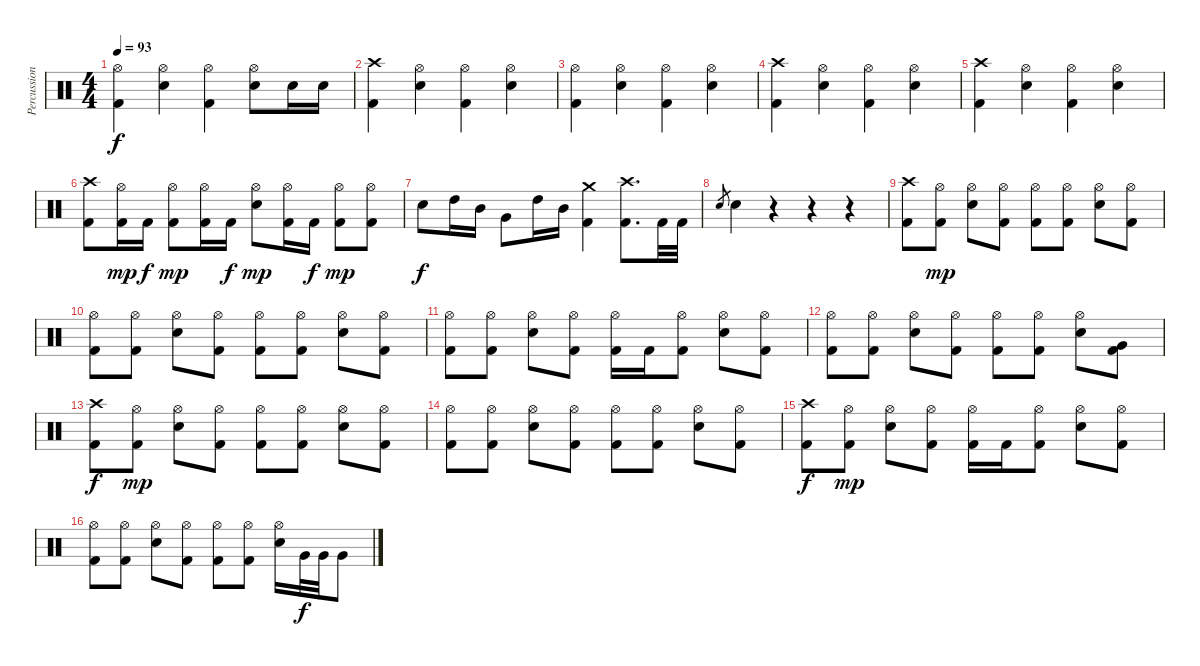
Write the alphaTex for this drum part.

\track ("Percussions" "Percussion") {instrument percussion}
\staff {score}
\articulation defaults
\ts (4 4)
\tempo 93
\clef neutral
\ks c
("Hi-Hat (open)" "Kick (hit) 2").4{dy f} ("Hi-Hat (open)" "Electric Snare (hit)").4 ("Hi-Hat (open)" "Kick (hit) 2").4 ("Hi-Hat (open)" "Electric Snare (hit)").8 "Electric Snare (hit)".16 "Electric Snare (hit)".16 |
("Crash high (hit)" "Kick (hit) 2").4 ("Hi-Hat (open)" "Electric Snare (hit)").4 ("Hi-Hat (open)" "Kick (hit) 2").4 ("Hi-Hat (open)" "Electric Snare (hit)").4 |
("Hi-Hat (open)" "Kick (hit) 2").4 ("Hi-Hat (open)" "Electric Snare (hit)").4 ("Hi-Hat (open)" "Kick (hit) 2").4 ("Hi-Hat (open)" "Electric Snare (hit)").4 |
("Crash high (hit)" "Kick (hit) 2").4 ("Hi-Hat (open)" "Electric Snare (hit)").4 ("Hi-Hat (open)" "Kick (hit) 2").4 ("Hi-Hat (open)" "Electric Snare (hit)").4 |
("Crash high (hit)" "Kick (hit) 2").4 ("Hi-Hat (open)" "Electric Snare (hit)").4 ("Hi-Hat (open)" "Kick (hit) 2").4 ("Hi-Hat (open)" "Electric Snare (hit)").4 |
("Crash high (hit)" "Kick (hit) 2").8 ("Hi-Hat (open)" "Kick (hit) 2").16{dy mp} "Kick (hit) 2".16{dy f} ("Hi-Hat (open)" "Kick (hit) 2").8{dy mp} ("Hi-Hat (open)" "Kick (hit) 2").16 "Kick (hit) 2".16{dy f} ("Hi-Hat (open)" "Electric Snare (hit)").8{dy mp} ("Hi-Hat (open)" "Kick (hit) 2").16 "Kick (hit) 2".16{dy f} ("Hi-Hat (open)" "Kick (hit) 2").8{dy mp} ("Hi-Hat (open)" "Kick (hit) 2").8 |
"Electric Snare (hit)".8{dy f} "High Tom (hit)".16 "Mid Tom (hit)".16 "Very Low Tom (hit)".8 "High Tom (hit)".16 "Mid Tom (hit)".16 ("Crash medium (hit)" "Kick (hit) 2").4 ("Crash high (hit)" "Kick (hit) 2").8{d} "Kick (hit) 2".32 "Kick (hit) 2".32 |
"Electric Snare (hit)".8{gr} "Electric Snare (hit)".4 r.4 r.4 r.4 |
("Crash high (hit)" "Kick (hit) 2").8 ("Hi-Hat (open)" "Kick (hit) 2").8{dy mp} ("Hi-Hat (open)" "Electric Snare (hit)").8 ("Hi-Hat (open)" "Kick (hit) 2").8 ("Hi-Hat (open)" "Kick (hit) 2").8 ("Hi-Hat (open)" "Kick (hit) 2").8 ("Hi-Hat (open)" "Electric Snare (hit)").8 ("Hi-Hat (open)" "Kick (hit) 2").8 |
("Hi-Hat (open)" "Kick (hit) 2").8 ("Hi-Hat (open)" "Kick (hit) 2").8 ("Hi-Hat (open)" "Electric Snare (hit)").8 ("Hi-Hat (open)" "Kick (hit) 2").8 ("Hi-Hat (open)" "Kick (hit) 2").8 ("Hi-Hat (open)" "Kick (hit) 2").8 ("Hi-Hat (open)" "Electric Snare (hit)").8 ("Hi-Hat (open)" "Kick (hit) 2").8 |
("Hi-Hat (open)" "Kick (hit) 2").8 ("Hi-Hat (open)" "Kick (hit) 2").8 ("Hi-Hat (open)" "Electric Snare (hit)").8 ("Hi-Hat (open)" "Kick (hit) 2").8 ("Hi-Hat (open)" "Kick (hit) 2").16 "Kick (hit) 2".16 ("Hi-Hat (open)" "Kick (hit) 2").8 ("Hi-Hat (open)" "Electric Snare (hit)").8 ("Hi-Hat (open)" "Kick (hit) 2").8 |
("Hi-Hat (open)" "Kick (hit) 2").8 ("Hi-Hat (open)" "Kick (hit) 2").8 ("Hi-Hat (open)" "Electric Snare (hit)").8 ("Hi-Hat (open)" "Kick (hit) 2").8 ("Hi-Hat (open)" "Kick (hit) 2").8 ("Hi-Hat (open)" "Kick (hit) 2").8 ("Hi-Hat (open)" "Electric Snare (hit)").8 ("Very Low Tom (hit)" "Kick (hit) 2").8 |
("Crash high (hit)" "Kick (hit) 2").8{dy f} ("Hi-Hat (open)" "Kick (hit) 2").8{dy mp} ("Hi-Hat (open)" "Electric Snare (hit)").8 ("Hi-Hat (open)" "Kick (hit) 2").8 ("Hi-Hat (open)" "Kick (hit) 2").8 ("Hi-Hat (open)" "Kick (hit) 2").8 ("Hi-Hat (open)" "Electric Snare (hit)").8 ("Hi-Hat (open)" "Kick (hit) 2").8 |
("Hi-Hat (open)" "Kick (hit) 2").8 ("Hi-Hat (open)" "Kick (hit) 2").8 ("Hi-Hat (open)" "Electric Snare (hit)").8 ("Hi-Hat (open)" "Kick (hit) 2").8 ("Hi-Hat (open)" "Kick (hit) 2").8 ("Hi-Hat (open)" "Kick (hit) 2").8 ("Hi-Hat (open)" "Electric Snare (hit)").8 ("Hi-Hat (open)" "Kick (hit) 2").8 |
("Crash high (hit)" "Kick (hit) 2").8{dy f} ("Hi-Hat (open)" "Kick (hit) 2").8{dy mp} ("Hi-Hat (open)" "Electric Snare (hit)").8 ("Hi-Hat (open)" "Kick (hit) 2").8 ("Hi-Hat (open)" "Kick (hit) 2").16 "Kick (hit) 2".16 ("Hi-Hat (open)" "Kick (hit) 2").8 ("Hi-Hat (open)" "Electric Snare (hit)").8 ("Hi-Hat (open)" "Kick (hit) 2").8 |
("Hi-Hat (open)" "Kick (hit) 2").8 ("Hi-Hat (open)" "Kick (hit) 2").8 ("Hi-Hat (open)" "Electric Snare (hit)").8 ("Hi-Hat (open)" "Kick (hit) 2").8 ("Hi-Hat (open)" "Kick (hit) 2").8 ("Hi-Hat (open)" "Kick (hit) 2").8 ("Hi-Hat (open)" "Electric Snare (hit)").16 "Very Low Tom (hit)".32{dy f} "Very Low Tom (hit)".32 "Very Low Tom (hit)".8
